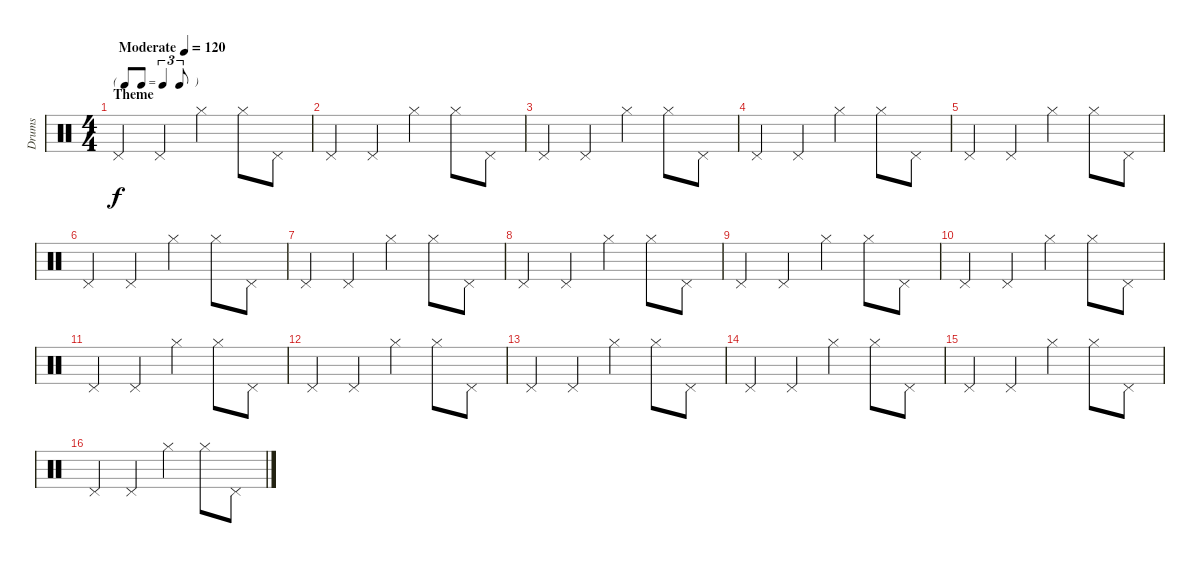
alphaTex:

\track ("Drums" "Drums") {instrument percussion}
\staff {score}
\articulation defaults
\ts (4 4)
\tf triplet8th
\section ("" "Theme")
\tempo (120 "Moderate")
\clef neutral
\ks c "Pedal Hi-Hat (hit)".4{dy f} "Pedal Hi-Hat (hit)".4 "Hi-Hat (closed)".4 "Hi-Hat (closed)".8 "Pedal Hi-Hat (hit)".8
|
"Pedal Hi-Hat (hit)".4 "Pedal Hi-Hat (hit)".4 "Hi-Hat (closed)".4 "Hi-Hat (closed)".8 "Pedal Hi-Hat (hit)".8 |
"Pedal Hi-Hat (hit)".4 "Pedal Hi-Hat (hit)".4 "Hi-Hat (closed)".4 "Hi-Hat (closed)".8 "Pedal Hi-Hat (hit)".8 |
"Pedal Hi-Hat (hit)".4 "Pedal Hi-Hat (hit)".4 "Hi-Hat (closed)".4 "Hi-Hat (closed)".8 "Pedal Hi-Hat (hit)".8 |
"Pedal Hi-Hat (hit)".4 "Pedal Hi-Hat (hit)".4 "Hi-Hat (closed)".4 "Hi-Hat (closed)".8 "Pedal Hi-Hat (hit)".8 |
"Pedal Hi-Hat (hit)".4 "Pedal Hi-Hat (hit)".4 "Hi-Hat (closed)".4 "Hi-Hat (closed)".8 "Pedal Hi-Hat (hit)".8 |
"Pedal Hi-Hat (hit)".4 "Pedal Hi-Hat (hit)".4 "Hi-Hat (closed)".4 "Hi-Hat (closed)".8 "Pedal Hi-Hat (hit)".8 |
"Pedal Hi-Hat (hit)".4 "Pedal Hi-Hat (hit)".4 "Hi-Hat (closed)".4 "Hi-Hat (closed)".8 "Pedal Hi-Hat (hit)".8 |
"Pedal Hi-Hat (hit)".4 "Pedal Hi-Hat (hit)".4 "Hi-Hat (closed)".4 "Hi-Hat (closed)".8 "Pedal Hi-Hat (hit)".8 |
"Pedal Hi-Hat (hit)".4 "Pedal Hi-Hat (hit)".4 "Hi-Hat (closed)".4 "Hi-Hat (closed)".8 "Pedal Hi-Hat (hit)".8 |
"Pedal Hi-Hat (hit)".4 "Pedal Hi-Hat (hit)".4 "Hi-Hat (closed)".4 "Hi-Hat (closed)".8 "Pedal Hi-Hat (hit)".8 |
"Pedal Hi-Hat (hit)".4 "Pedal Hi-Hat (hit)".4 "Hi-Hat (closed)".4 "Hi-Hat (closed)".8 "Pedal Hi-Hat (hit)".8 |
"Pedal Hi-Hat (hit)".4 "Pedal Hi-Hat (hit)".4 "Hi-Hat (closed)".4 "Hi-Hat (closed)".8 "Pedal Hi-Hat (hit)".8 |
"Pedal Hi-Hat (hit)".4 "Pedal Hi-Hat (hit)".4 "Hi-Hat (closed)".4 "Hi-Hat (closed)".8 "Pedal Hi-Hat (hit)".8 |
"Pedal Hi-Hat (hit)".4 "Pedal Hi-Hat (hit)".4 "Hi-Hat (closed)".4 "Hi-Hat (closed)".8 "Pedal Hi-Hat (hit)".8 |
"Pedal Hi-Hat (hit)".4 "Pedal Hi-Hat (hit)".4 "Hi-Hat (closed)".4 "Hi-Hat (closed)".8 "Pedal Hi-Hat (hit)".8
